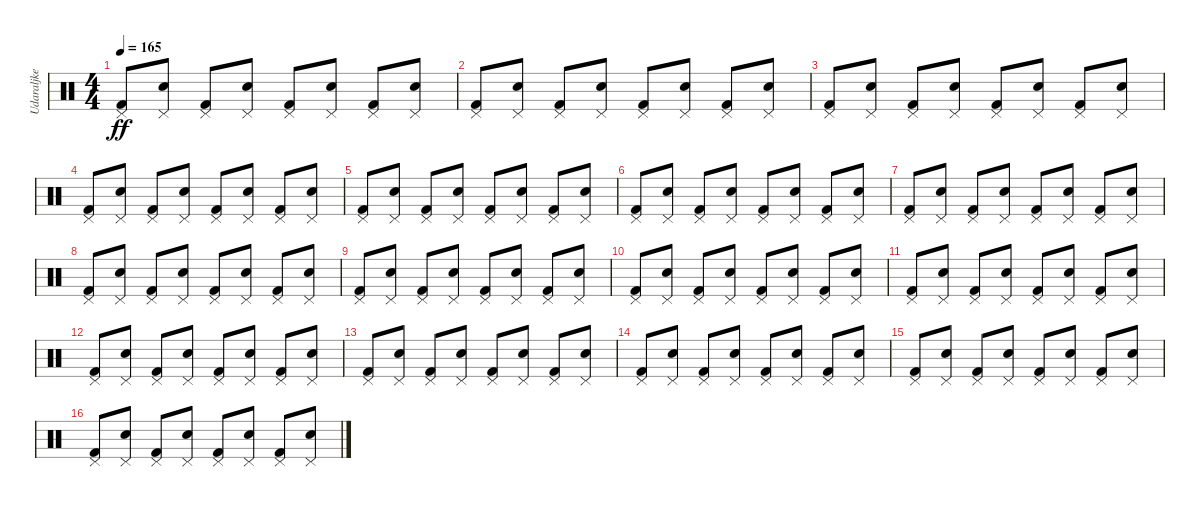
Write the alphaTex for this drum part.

\track ("Udaraljke" "Udaraljke") {instrument percussion}
\staff {score}
\articulation defaults
\ts (4 4)
\tempo 165
\clef neutral
\ks c
("Kick (hit) 2" "Pedal Hi-Hat (hit)").8{dy ff} ("Snare (hit) 2" "Pedal Hi-Hat (hit)").8 ("Kick (hit) 2" "Pedal Hi-Hat (hit)").8 ("Snare (hit) 2" "Pedal Hi-Hat (hit)").8 ("Kick (hit) 2" "Pedal Hi-Hat (hit)").8 ("Snare (hit) 2" "Pedal Hi-Hat (hit)").8 ("Kick (hit) 2" "Pedal Hi-Hat (hit)").8 ("Snare (hit) 2" "Pedal Hi-Hat (hit)").8 |
("Kick (hit) 2" "Pedal Hi-Hat (hit)").8 ("Snare (hit) 2" "Pedal Hi-Hat (hit)").8 ("Kick (hit) 2" "Pedal Hi-Hat (hit)").8 ("Snare (hit) 2" "Pedal Hi-Hat (hit)").8 ("Kick (hit) 2" "Pedal Hi-Hat (hit)").8 ("Snare (hit) 2" "Pedal Hi-Hat (hit)").8 ("Kick (hit) 2" "Pedal Hi-Hat (hit)").8 ("Snare (hit) 2" "Pedal Hi-Hat (hit)").8 |
("Kick (hit) 2" "Pedal Hi-Hat (hit)").8 ("Snare (hit) 2" "Pedal Hi-Hat (hit)").8 ("Kick (hit) 2" "Pedal Hi-Hat (hit)").8 ("Snare (hit) 2" "Pedal Hi-Hat (hit)").8 ("Kick (hit) 2" "Pedal Hi-Hat (hit)").8 ("Snare (hit) 2" "Pedal Hi-Hat (hit)").8 ("Kick (hit) 2" "Pedal Hi-Hat (hit)").8 ("Snare (hit) 2" "Pedal Hi-Hat (hit)").8 |
("Kick (hit) 2" "Pedal Hi-Hat (hit)").8 ("Snare (hit) 2" "Pedal Hi-Hat (hit)").8 ("Kick (hit) 2" "Pedal Hi-Hat (hit)").8 ("Snare (hit) 2" "Pedal Hi-Hat (hit)").8 ("Kick (hit) 2" "Pedal Hi-Hat (hit)").8 ("Snare (hit) 2" "Pedal Hi-Hat (hit)").8 ("Kick (hit) 2" "Pedal Hi-Hat (hit)").8 ("Snare (hit) 2" "Pedal Hi-Hat (hit)").8 |
("Kick (hit) 2" "Pedal Hi-Hat (hit)").8 ("Snare (hit) 2" "Pedal Hi-Hat (hit)").8 ("Kick (hit) 2" "Pedal Hi-Hat (hit)").8 ("Snare (hit) 2" "Pedal Hi-Hat (hit)").8 ("Kick (hit) 2" "Pedal Hi-Hat (hit)").8 ("Snare (hit) 2" "Pedal Hi-Hat (hit)").8 ("Kick (hit) 2" "Pedal Hi-Hat (hit)").8 ("Snare (hit) 2" "Pedal Hi-Hat (hit)").8 |
("Kick (hit) 2" "Pedal Hi-Hat (hit)").8 ("Snare (hit) 2" "Pedal Hi-Hat (hit)").8 ("Kick (hit) 2" "Pedal Hi-Hat (hit)").8 ("Snare (hit) 2" "Pedal Hi-Hat (hit)").8 ("Kick (hit) 2" "Pedal Hi-Hat (hit)").8 ("Snare (hit) 2" "Pedal Hi-Hat (hit)").8 ("Kick (hit) 2" "Pedal Hi-Hat (hit)").8 ("Snare (hit) 2" "Pedal Hi-Hat (hit)").8 |
("Kick (hit) 2" "Pedal Hi-Hat (hit)").8 ("Snare (hit) 2" "Pedal Hi-Hat (hit)").8 ("Kick (hit) 2" "Pedal Hi-Hat (hit)").8 ("Snare (hit) 2" "Pedal Hi-Hat (hit)").8 ("Kick (hit) 2" "Pedal Hi-Hat (hit)").8 ("Snare (hit) 2" "Pedal Hi-Hat (hit)").8 ("Kick (hit) 2" "Pedal Hi-Hat (hit)").8 ("Snare (hit) 2" "Pedal Hi-Hat (hit)").8 |
("Kick (hit) 2" "Pedal Hi-Hat (hit)").8 ("Snare (hit) 2" "Pedal Hi-Hat (hit)").8 ("Kick (hit) 2" "Pedal Hi-Hat (hit)").8 ("Snare (hit) 2" "Pedal Hi-Hat (hit)").8 ("Kick (hit) 2" "Pedal Hi-Hat (hit)").8 ("Snare (hit) 2" "Pedal Hi-Hat (hit)").8 ("Kick (hit) 2" "Pedal Hi-Hat (hit)").8 ("Snare (hit) 2" "Pedal Hi-Hat (hit)").8 |
("Kick (hit) 2" "Pedal Hi-Hat (hit)").8 ("Snare (hit) 2" "Pedal Hi-Hat (hit)").8 ("Kick (hit) 2" "Pedal Hi-Hat (hit)").8 ("Snare (hit) 2" "Pedal Hi-Hat (hit)").8 ("Kick (hit) 2" "Pedal Hi-Hat (hit)").8 ("Snare (hit) 2" "Pedal Hi-Hat (hit)").8 ("Kick (hit) 2" "Pedal Hi-Hat (hit)").8 ("Snare (hit) 2" "Pedal Hi-Hat (hit)").8 |
("Kick (hit) 2" "Pedal Hi-Hat (hit)").8 ("Snare (hit) 2" "Pedal Hi-Hat (hit)").8 ("Kick (hit) 2" "Pedal Hi-Hat (hit)").8 ("Snare (hit) 2" "Pedal Hi-Hat (hit)").8 ("Kick (hit) 2" "Pedal Hi-Hat (hit)").8 ("Snare (hit) 2" "Pedal Hi-Hat (hit)").8 ("Kick (hit) 2" "Pedal Hi-Hat (hit)").8 ("Snare (hit) 2" "Pedal Hi-Hat (hit)").8 |
("Kick (hit) 2" "Pedal Hi-Hat (hit)").8 ("Snare (hit) 2" "Pedal Hi-Hat (hit)").8 ("Kick (hit) 2" "Pedal Hi-Hat (hit)").8 ("Snare (hit) 2" "Pedal Hi-Hat (hit)").8 ("Kick (hit) 2" "Pedal Hi-Hat (hit)").8 ("Snare (hit) 2" "Pedal Hi-Hat (hit)").8 ("Kick (hit) 2" "Pedal Hi-Hat (hit)").8 ("Snare (hit) 2" "Pedal Hi-Hat (hit)").8 |
("Kick (hit) 2" "Pedal Hi-Hat (hit)").8 ("Snare (hit) 2" "Pedal Hi-Hat (hit)").8 ("Kick (hit) 2" "Pedal Hi-Hat (hit)").8 ("Snare (hit) 2" "Pedal Hi-Hat (hit)").8 ("Kick (hit) 2" "Pedal Hi-Hat (hit)").8 ("Snare (hit) 2" "Pedal Hi-Hat (hit)").8 ("Kick (hit) 2" "Pedal Hi-Hat (hit)").8 ("Snare (hit) 2" "Pedal Hi-Hat (hit)").8 |
("Kick (hit) 2" "Pedal Hi-Hat (hit)").8 ("Snare (hit) 2" "Pedal Hi-Hat (hit)").8 ("Kick (hit) 2" "Pedal Hi-Hat (hit)").8 ("Snare (hit) 2" "Pedal Hi-Hat (hit)").8 ("Kick (hit) 2" "Pedal Hi-Hat (hit)").8 ("Snare (hit) 2" "Pedal Hi-Hat (hit)").8 ("Kick (hit) 2" "Pedal Hi-Hat (hit)").8 ("Snare (hit) 2" "Pedal Hi-Hat (hit)").8 |
("Kick (hit) 2" "Pedal Hi-Hat (hit)").8 ("Snare (hit) 2" "Pedal Hi-Hat (hit)").8 ("Kick (hit) 2" "Pedal Hi-Hat (hit)").8 ("Snare (hit) 2" "Pedal Hi-Hat (hit)").8 ("Kick (hit) 2" "Pedal Hi-Hat (hit)").8 ("Snare (hit) 2" "Pedal Hi-Hat (hit)").8 ("Kick (hit) 2" "Pedal Hi-Hat (hit)").8 ("Snare (hit) 2" "Pedal Hi-Hat (hit)").8 |
("Kick (hit) 2" "Pedal Hi-Hat (hit)").8 ("Snare (hit) 2" "Pedal Hi-Hat (hit)").8 ("Kick (hit) 2" "Pedal Hi-Hat (hit)").8 ("Snare (hit) 2" "Pedal Hi-Hat (hit)").8 ("Kick (hit) 2" "Pedal Hi-Hat (hit)").8 ("Snare (hit) 2" "Pedal Hi-Hat (hit)").8 ("Kick (hit) 2" "Pedal Hi-Hat (hit)").8 ("Snare (hit) 2" "Pedal Hi-Hat (hit)").8 |
("Kick (hit) 2" "Pedal Hi-Hat (hit)").8 ("Snare (hit) 2" "Pedal Hi-Hat (hit)").8 ("Kick (hit) 2" "Pedal Hi-Hat (hit)").8 ("Snare (hit) 2" "Pedal Hi-Hat (hit)").8 ("Kick (hit) 2" "Pedal Hi-Hat (hit)").8 ("Snare (hit) 2" "Pedal Hi-Hat (hit)").8 ("Kick (hit) 2" "Pedal Hi-Hat (hit)").8 ("Snare (hit) 2" "Pedal Hi-Hat (hit)").8
